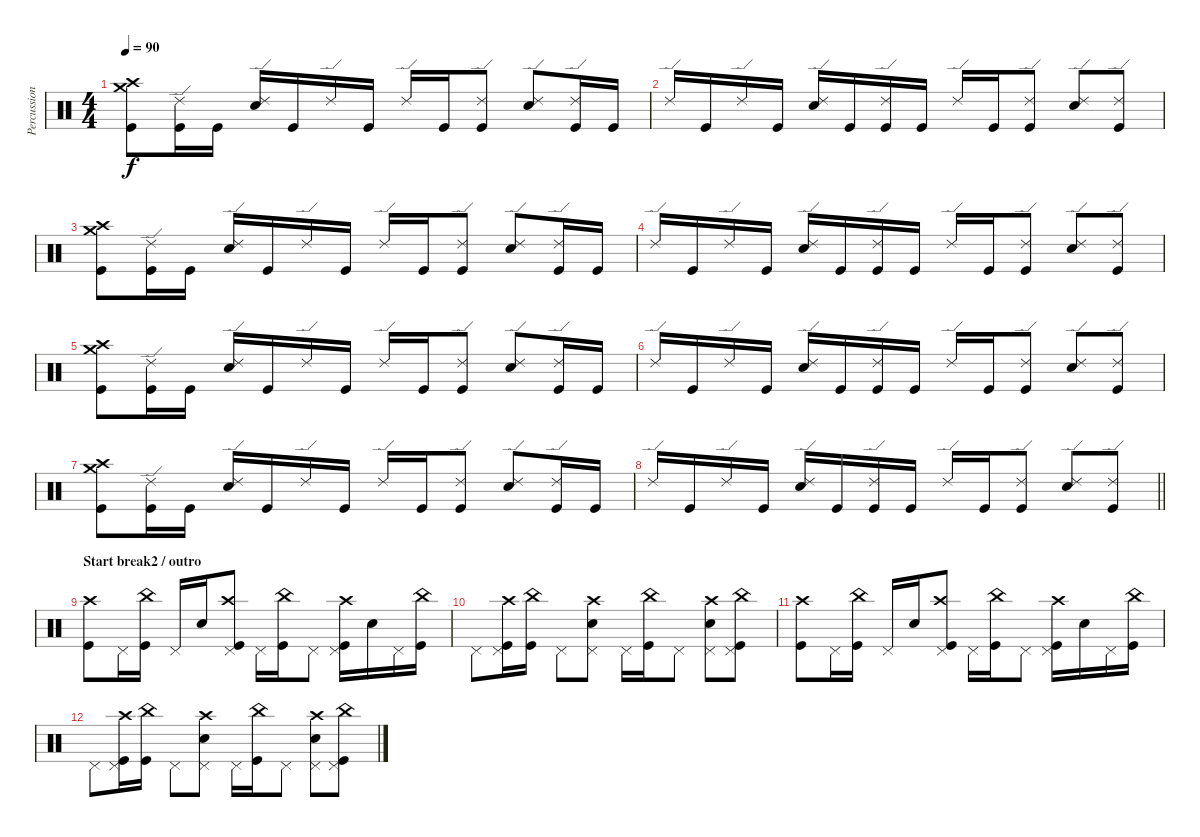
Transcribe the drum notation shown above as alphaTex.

\track ("Percussion" "Percussion") {instrument percussion}
\staff {score}
\articulation defaults
\ts (4 4)
\tempo 90
\clef neutral
\ks c
("Kick (hit)" "Crash high (hit)" "Crash medium (hit)").8{dy f} ("Kick (hit)" "Ride (edge) 2").16 "Kick (hit)".16 ("Snare (hit) 2" "Ride (edge) 2").16 "Kick (hit)".16 "Ride (edge) 2".16 "Kick (hit)".16 "Ride (edge) 2".16 "Kick (hit)".16 ("Kick (hit)" "Ride (edge) 2").8 ("Snare (hit) 2" "Ride (edge) 2").8 ("Kick (hit)" "Ride (edge) 2").16 "Kick (hit)".16 |
"Ride (edge) 2".16 "Kick (hit)".16 "Ride (edge) 2".16 "Kick (hit)".16 ("Snare (hit) 2" "Ride (edge) 2").16 "Kick (hit)".16 ("Kick (hit)" "Ride (edge) 2").16 "Kick (hit)".16 "Ride (edge) 2".16 "Kick (hit)".16 ("Kick (hit)" "Ride (edge) 2").8 ("Snare (hit) 2" "Ride (edge) 2").8 ("Kick (hit)" "Ride (edge) 2").8 |
("Kick (hit)" "Crash high (hit)" "Crash medium (hit)").8 ("Kick (hit)" "Ride (edge) 2").16 "Kick (hit)".16 ("Snare (hit) 2" "Ride (edge) 2").16 "Kick (hit)".16 "Ride (edge) 2".16 "Kick (hit)".16 "Ride (edge) 2".16 "Kick (hit)".16 ("Kick (hit)" "Ride (edge) 2").8 ("Snare (hit) 2" "Ride (edge) 2").8 ("Kick (hit)" "Ride (edge) 2").16 "Kick (hit)".16 |
"Ride (edge) 2".16 "Kick (hit)".16 "Ride (edge) 2".16 "Kick (hit)".16 ("Snare (hit) 2" "Ride (edge) 2").16 "Kick (hit)".16 ("Kick (hit)" "Ride (edge) 2").16 "Kick (hit)".16 "Ride (edge) 2".16 "Kick (hit)".16 ("Kick (hit)" "Ride (edge) 2").8 ("Snare (hit) 2" "Ride (edge) 2").8 ("Kick (hit)" "Ride (edge) 2").8 |
("Kick (hit)" "Crash high (hit)" "Crash medium (hit)").8 ("Kick (hit)" "Ride (edge) 2").16 "Kick (hit)".16 ("Snare (hit) 2" "Ride (edge) 2").16 "Kick (hit)".16 "Ride (edge) 2".16 "Kick (hit)".16 "Ride (edge) 2".16 "Kick (hit)".16 ("Kick (hit)" "Ride (edge) 2").8 ("Snare (hit) 2" "Ride (edge) 2").8 ("Kick (hit)" "Ride (edge) 2").16 "Kick (hit)".16 |
"Ride (edge) 2".16 "Kick (hit)".16 "Ride (edge) 2".16 "Kick (hit)".16 ("Snare (hit) 2" "Ride (edge) 2").16 "Kick (hit)".16 ("Kick (hit)" "Ride (edge) 2").16 "Kick (hit)".16 "Ride (edge) 2".16 "Kick (hit)".16 ("Kick (hit)" "Ride (edge) 2").8 ("Snare (hit) 2" "Ride (edge) 2").8 ("Kick (hit)" "Ride (edge) 2").8 |
("Kick (hit)" "Crash high (hit)" "Crash medium (hit)").8 ("Kick (hit)" "Ride (edge) 2").16 "Kick (hit)".16 ("Snare (hit) 2" "Ride (edge) 2").16 "Kick (hit)".16 "Ride (edge) 2".16 "Kick (hit)".16 "Ride (edge) 2".16 "Kick (hit)".16 ("Kick (hit)" "Ride (edge) 2").8 ("Snare (hit) 2" "Ride (edge) 2").8 ("Kick (hit)" "Ride (edge) 2").16 "Kick (hit)".16 |
\barLineRight lightlight "Ride (edge) 2".16 "Kick (hit)".16 "Ride (edge) 2".16 "Kick (hit)".16
("Snare (hit) 2" "Ride (edge) 2").16 "Kick (hit)".16 ("Kick (hit)" "Ride (edge) 2").16 "Kick (hit)".16 "Ride (edge) 2".16 "Kick (hit)".16 ("Kick (hit)" "Ride (edge) 2").8 ("Snare (hit) 2" "Ride (edge) 2").8 ("Kick (hit)" "Ride (edge) 2").8 |
\section ("" "Start break2 / outro")
("Kick (hit)" "Crash high (hit)").8 "Pedal Hi-Hat (hit)".16 ("Kick (hit)" "China (hit)").16 "Pedal Hi-Hat (hit)".16 "Snare (hit) 2".16 ("Kick (hit)" "Crash high (hit)" "Pedal Hi-Hat (hit)").8 "Pedal Hi-Hat (hit)".16 ("Kick (hit)" "China (hit)").16 "Pedal Hi-Hat (hit)".8 ("Kick (hit)" "Crash high (hit)" "Pedal Hi-Hat (hit)").16 "Snare (hit) 2".16 "Pedal Hi-Hat (hit)".16 ("Kick (hit)" "China (hit)").16 |
"Pedal Hi-Hat (hit)".8 ("Kick (hit)" "Crash high (hit)" "Pedal Hi-Hat (hit)").16 ("Kick (hit)" "China (hit)").16 "Pedal Hi-Hat (hit)".8 ("Snare (hit) 2" "Crash high (hit)" "Pedal Hi-Hat (hit)").8 "Pedal Hi-Hat (hit)".16 ("Kick (hit)" "China (hit)").16 "Pedal Hi-Hat (hit)".8 ("Snare (hit) 2" "Crash high (hit)" "Pedal Hi-Hat (hit)").8 ("Kick (hit)" "China (hit)" "Pedal Hi-Hat (hit)").8 |
("Kick (hit)" "Crash high (hit)").8 "Pedal Hi-Hat (hit)".16 ("Kick (hit)" "China (hit)").16 "Pedal Hi-Hat (hit)".16 "Snare (hit) 2".16 ("Kick (hit)" "Crash high (hit)" "Pedal Hi-Hat (hit)").8 "Pedal Hi-Hat (hit)".16 ("Kick (hit)" "China (hit)").16 "Pedal Hi-Hat (hit)".8 ("Kick (hit)" "Crash high (hit)" "Pedal Hi-Hat (hit)").16 "Snare (hit) 2".16 "Pedal Hi-Hat (hit)".16 ("Kick (hit)" "China (hit)").16 |
"Pedal Hi-Hat (hit)".8 ("Kick (hit)" "Crash high (hit)" "Pedal Hi-Hat (hit)").16 ("Kick (hit)" "China (hit)").16 "Pedal Hi-Hat (hit)".8 ("Snare (hit) 2" "Crash high (hit)" "Pedal Hi-Hat (hit)").8 "Pedal Hi-Hat (hit)".16 ("Kick (hit)" "China (hit)").16 "Pedal Hi-Hat (hit)".8 ("Snare (hit) 2" "Crash high (hit)" "Pedal Hi-Hat (hit)").8 ("Kick (hit)" "China (hit)" "Pedal Hi-Hat (hit)").8
